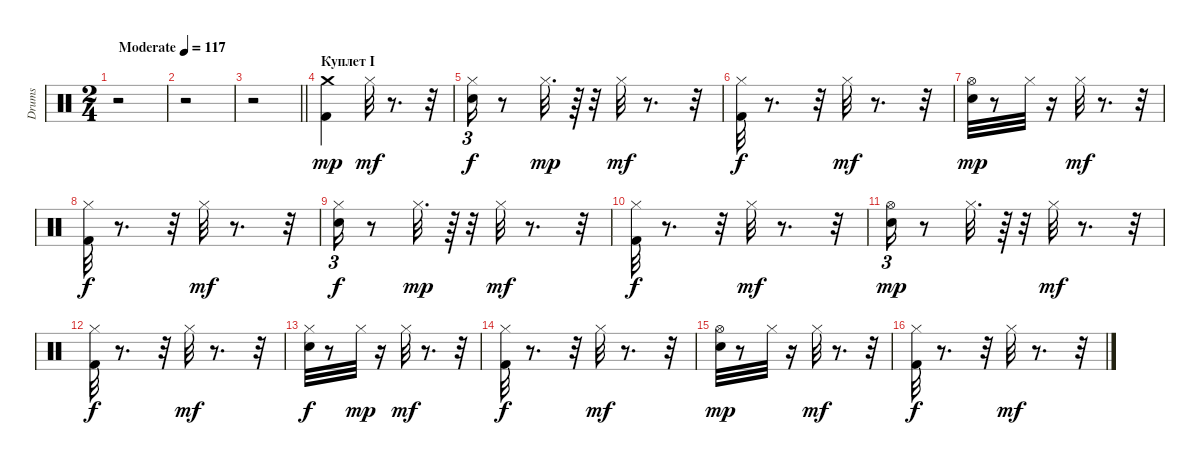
\track ("Drums" "Drums") {instrument percussion}
\staff {score}
\articulation defaults
\ts (2 4)
\tempo (117 "Moderate")
\clef neutral
\ks c
r.2{dy mp} |
\tempo 117
r.2 |
\barLineRight lightlight
r.2 |
\section ("" "Куплет I")
("Kick (hit) 2" "Crash medium (hit)").4 "Hi-Hat (closed)".32{dy mf} r.8{d} r.32 |
("Electric Snare (hit)" "Hi-Hat (closed)").16{tu (3 2) dy f} r.8 "Hi-Hat (closed)".32{d dy mp} r.64 r.32 "Hi-Hat (closed)".32{dy mf} r.8{d} r.32 |
("Kick (hit) 2" "Hi-Hat (closed)").32{dy f} r.8{d} r.32 "Hi-Hat (closed)".32{dy mf} r.8{d} r.32 |
("Electric Snare (hit)" "Hi-Hat (open)").32{dy mp} r.8 "Hi-Hat (closed)".32 r.16 "Hi-Hat (closed)".32{dy mf} r.8{d} r.32 |
("Kick (hit) 2" "Hi-Hat (closed)").32{dy f} r.8{d} r.32 "Hi-Hat (closed)".32{dy mf} r.8{d} r.32 |
("Electric Snare (hit)" "Hi-Hat (closed)").16{tu (3 2) dy f} r.8 "Hi-Hat (closed)".32{d dy mp} r.64 r.32 "Hi-Hat (closed)".32{dy mf} r.8{d} r.32 |
("Kick (hit) 2" "Hi-Hat (closed)").32{dy f} r.8{d} r.32 "Hi-Hat (closed)".32{dy mf} r.8{d} r.32 |
("Electric Snare (hit)" "Hi-Hat (open)").16{tu (3 2) dy mp} r.8 "Hi-Hat (closed)".32{d} r.64 r.32 "Hi-Hat (closed)".32{dy mf} r.8{d} r.32 |
("Kick (hit) 2" "Hi-Hat (closed)").32{dy f} r.8{d} r.32 "Hi-Hat (closed)".32{dy mf} r.8{d} r.32 |
("Electric Snare (hit)" "Hi-Hat (closed)").32{dy f} r.8 "Hi-Hat (closed)".32{dy mp} r.16 "Hi-Hat (closed)".32{dy mf} r.8{d} r.32 |
("Kick (hit) 2" "Hi-Hat (closed)").32{dy f} r.8{d} r.32 "Hi-Hat (closed)".32{dy mf} r.8{d} r.32 |
("Electric Snare (hit)" "Hi-Hat (open)").32{dy mp} r.8 "Hi-Hat (closed)".32 r.16 "Hi-Hat (closed)".32{dy mf} r.8{d} r.32 |
("Kick (hit) 2" "Hi-Hat (closed)").32{dy f} r.8{d} r.32 "Hi-Hat (closed)".32{dy mf} r.8{d} r.32
